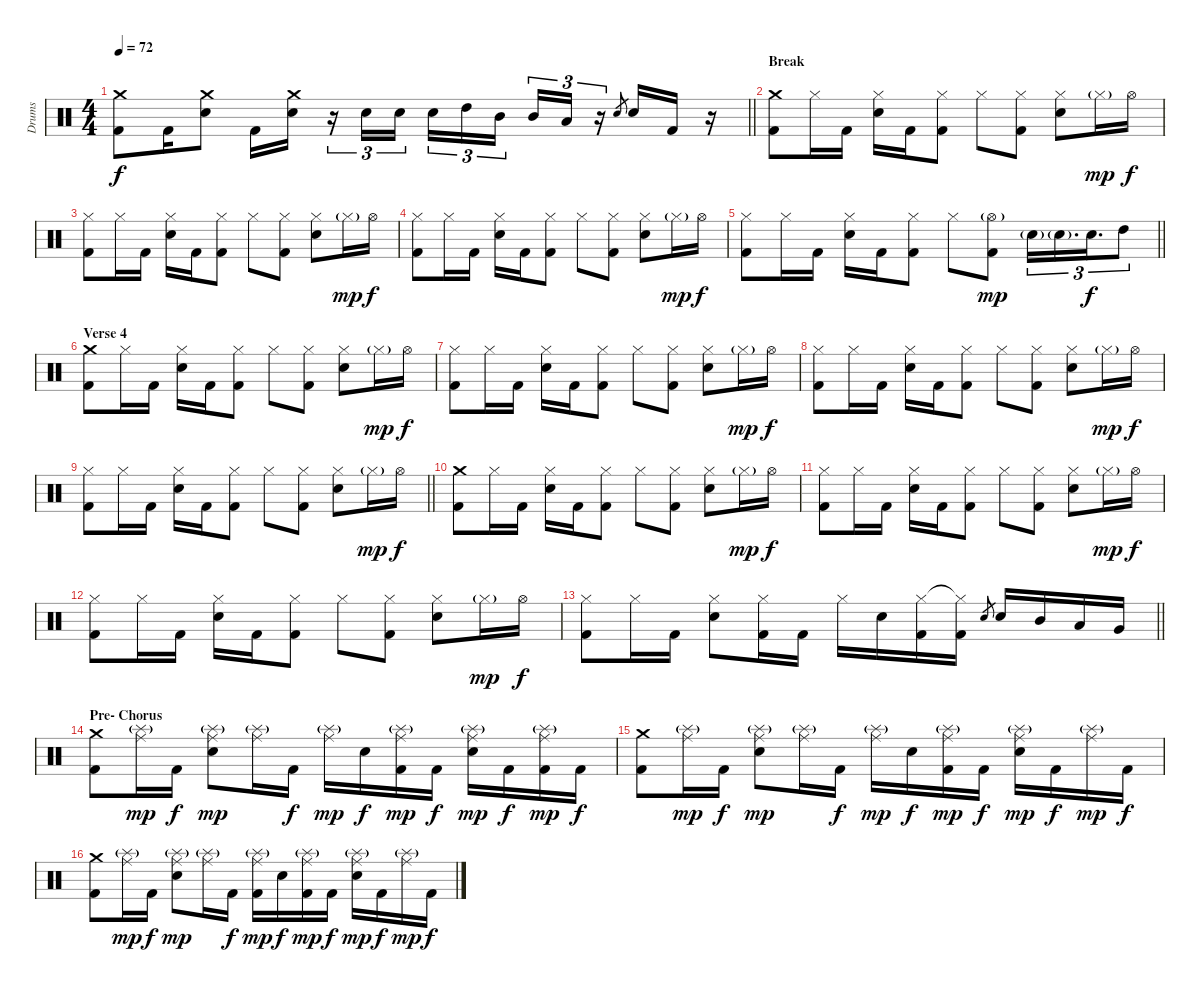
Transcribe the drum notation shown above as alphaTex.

\track ("Drums" "Drums") {instrument percussion}
\staff {score}
\articulation defaults
\ts (4 4)
\tempo 72
\clef neutral
\barLineRight lightlight
\ks c
("Crash medium (hit)" "Kick (hit) 2").8{dy f} "Kick (hit) 2".16 ("Crash medium (hit)" "Electric Snare (hit)").8 "Kick (hit) 2".16 ("Crash medium (hit)" "Electric Snare (hit)").16 r.16{tu (3 2)} "Electric Snare (hit)".16{tu (3 2)} "Electric Snare (hit)".16{tu (3 2) beam splitsecondary} "Electric Snare (hit)".16{tu (3 2)} "High Tom (hit)".16{tu (3 2)} "Mid Tom (hit)".16{tu (3 2) beam splitsecondary} "Mid Tom (hit)".16{tu (3 2)} "Low Tom (hit)".16{tu (3 2)} r.16{tu (3 2)} "Electric Snare (hit)"{h}.8{gr} "Electric Snare (hit)".16 "Kick (hit) 2".16 r.16 |
\section ("" "Break")
("Crash medium (hit)" "Kick (hit) 2").8 "Hi-Hat (closed)".16 "Kick (hit) 2".16 ("Hi-Hat (closed)" "Electric Snare (hit)").16 "Kick (hit) 2".16 ("Hi-Hat (closed)" "Kick (hit) 2").8 "Hi-Hat (closed)".8 ("Hi-Hat (closed)" "Kick (hit) 2").8 ("Hi-Hat (closed)" "Electric Snare (hit)").8 "Hi-Hat (closed)"{g}.16{dy mp} "Hi-Hat (open)".16{dy f} |
("Hi-Hat (closed)" "Kick (hit) 2").8 "Hi-Hat (closed)".16 "Kick (hit) 2".16 ("Hi-Hat (closed)" "Electric Snare (hit)").16 "Kick (hit) 2".16 ("Hi-Hat (closed)" "Kick (hit) 2").8 "Hi-Hat (closed)".8 ("Hi-Hat (closed)" "Kick (hit) 2").8 ("Hi-Hat (closed)" "Electric Snare (hit)").8 "Hi-Hat (closed)"{g}.16{dy mp} "Hi-Hat (open)".16{dy f} |
("Hi-Hat (closed)" "Kick (hit) 2").8 "Hi-Hat (closed)".16 "Kick (hit) 2".16 ("Hi-Hat (closed)" "Electric Snare (hit)").16 "Kick (hit) 2".16 ("Hi-Hat (closed)" "Kick (hit) 2").8 "Hi-Hat (closed)".8 ("Hi-Hat (closed)" "Kick (hit) 2").8 ("Hi-Hat (closed)" "Electric Snare (hit)").8 "Hi-Hat (closed)"{g}.16{dy mp} "Hi-Hat (open)".16{dy f} |
\barLineRight lightlight
("Hi-Hat (closed)" "Kick (hit) 2").8 "Hi-Hat (closed)".16 "Kick (hit) 2".16 ("Hi-Hat (closed)" "Electric Snare (hit)").16 "Kick (hit) 2".16 ("Hi-Hat (closed)" "Kick (hit) 2").8 "Hi-Hat (closed)".8 ("Hi-Hat (open)"{g} "Kick (hit) 2").8{dy mp} "Electric Snare (hit)"{g}.16{tu (3 2)} "Electric Snare (hit)"{g}.16{d tu (3 2)} "Electric Snare (hit)".16{d tu (3 2) dy f} "High Tom (hit)".8{tu (3 2)} |
\section ("" "Verse 4")
("Crash medium (hit)" "Kick (hit) 2").8 "Hi-Hat (closed)".16 "Kick (hit) 2".16 ("Hi-Hat (closed)" "Electric Snare (hit)").16 "Kick (hit) 2".16 ("Hi-Hat (closed)" "Kick (hit) 2").8 "Hi-Hat (closed)".8 ("Hi-Hat (closed)" "Kick (hit) 2").8 ("Hi-Hat (closed)" "Electric Snare (hit)").8 "Hi-Hat (closed)"{g}.16{dy mp} "Hi-Hat (open)".16{dy f} |
("Hi-Hat (closed)" "Kick (hit) 2").8 "Hi-Hat (closed)".16 "Kick (hit) 2".16 ("Hi-Hat (closed)" "Electric Snare (hit)").16 "Kick (hit) 2".16 ("Hi-Hat (closed)" "Kick (hit) 2").8 "Hi-Hat (closed)".8 ("Hi-Hat (closed)" "Kick (hit) 2").8 ("Hi-Hat (closed)" "Electric Snare (hit)").8 "Hi-Hat (closed)"{g}.16{dy mp} "Hi-Hat (open)".16{dy f} |
("Hi-Hat (closed)" "Kick (hit) 2").8 "Hi-Hat (closed)".16 "Kick (hit) 2".16 ("Hi-Hat (closed)" "Electric Snare (hit)").16 "Kick (hit) 2".16 ("Hi-Hat (closed)" "Kick (hit) 2").8 "Hi-Hat (closed)".8 ("Hi-Hat (closed)" "Kick (hit) 2").8 ("Hi-Hat (closed)" "Electric Snare (hit)").8 "Hi-Hat (closed)"{g}.16{dy mp} "Hi-Hat (open)".16{dy f} |
\barLineRight lightlight
("Hi-Hat (closed)" "Kick (hit) 2").8 "Hi-Hat (closed)".16 "Kick (hit) 2".16 ("Hi-Hat (closed)" "Electric Snare (hit)").16 "Kick (hit) 2".16 ("Hi-Hat (closed)" "Kick (hit) 2").8 "Hi-Hat (closed)".8 ("Hi-Hat (closed)" "Kick (hit) 2").8 ("Hi-Hat (closed)" "Electric Snare (hit)").8 "Hi-Hat (closed)"{g}.16{dy mp} "Hi-Hat (open)".16{dy f} |
("Crash medium (hit)" "Kick (hit) 2").8 "Hi-Hat (closed)".16 "Kick (hit) 2".16 ("Hi-Hat (closed)" "Electric Snare (hit)").16 "Kick (hit) 2".16 ("Hi-Hat (closed)" "Kick (hit) 2").8 "Hi-Hat (closed)".8 ("Hi-Hat (closed)" "Kick (hit) 2").8 ("Hi-Hat (closed)" "Electric Snare (hit)").8 "Hi-Hat (closed)"{g}.16{dy mp} "Hi-Hat (open)".16{dy f} |
("Hi-Hat (closed)" "Kick (hit) 2").8 "Hi-Hat (closed)".16 "Kick (hit) 2".16 ("Hi-Hat (closed)" "Electric Snare (hit)").16 "Kick (hit) 2".16 ("Hi-Hat (closed)" "Kick (hit) 2").8 "Hi-Hat (closed)".8 ("Hi-Hat (closed)" "Kick (hit) 2").8 ("Hi-Hat (closed)" "Electric Snare (hit)").8 "Hi-Hat (closed)"{g}.16{dy mp} "Hi-Hat (open)".16{dy f} |
("Hi-Hat (closed)" "Kick (hit) 2").8 "Hi-Hat (closed)".16 "Kick (hit) 2".16 ("Hi-Hat (closed)" "Electric Snare (hit)").16 "Kick (hit) 2".16 ("Hi-Hat (closed)" "Kick (hit) 2").8 "Hi-Hat (closed)".8 ("Hi-Hat (closed)" "Kick (hit) 2").8 ("Hi-Hat (closed)" "Electric Snare (hit)").8 "Hi-Hat (closed)"{g}.16{dy mp} "Hi-Hat (open)".16{dy f} |
\barLineRight lightlight
("Hi-Hat (closed)" "Kick (hit) 2").8 "Hi-Hat (closed)".16 "Kick (hit) 2".16 ("Hi-Hat (closed)" "Electric Snare (hit)").8 ("Hi-Hat (closed)" "Kick (hit) 2").16 "Kick (hit) 2".16 "Hi-Hat (closed)".16 "Electric Snare (hit)".16 ("Hi-Hat (closed)" "Kick (hit) 2").16 ("Hi-Hat (closed)"{t} "Kick (hit) 2").16 "Electric Snare (hit)"{h}.8{gr} "Electric Snare (hit)".16 "Mid Tom (hit)".16 "Low Tom (hit)".16 "Very Low Tom (hit)".16 |
\section ("" "Pre- Chorus")
("Crash medium (hit)" "Kick (hit) 2").8 ("Ride (middle)" "Splash (hit)"{g}).16{dy mp} "Kick (hit) 2".16{dy f} ("Ride (middle)" "Splash (hit)"{g} "Electric Snare (hit)").8{dy mp} ("Ride (middle)" "Splash (hit)"{g}).16 "Kick (hit) 2".16{dy f} ("Ride (middle)" "Splash (hit)"{g}).16{dy mp} "Electric Snare (hit)".16{dy f} ("Ride (middle)" "Splash (hit)"{g} "Kick (hit) 2").16{dy mp} "Kick (hit) 2".16{dy f} ("Ride (middle)" "Splash (hit)"{g} "Electric Snare (hit)").16{dy mp} "Kick (hit) 2".16{dy f} ("Ride (middle)" "Splash (hit)"{g} "Kick (hit) 2").16{dy mp} "Kick (hit) 2".16{dy f} |
("Crash medium (hit)" "Kick (hit) 2").8 ("Ride (middle)" "Splash (hit)"{g}).16{dy mp} "Kick (hit) 2".16{dy f} ("Ride (middle)" "Splash (hit)"{g} "Electric Snare (hit)").8{dy mp} ("Ride (middle)" "Splash (hit)"{g}).16 "Kick (hit) 2".16{dy f} ("Ride (middle)" "Splash (hit)"{g}).16{dy mp} "Electric Snare (hit)".16{dy f} ("Ride (middle)" "Splash (hit)"{g} "Kick (hit) 2").16{dy mp} "Kick (hit) 2".16{dy f} ("Ride (middle)" "Splash (hit)"{g} "Electric Snare (hit)").16{dy mp} "Kick (hit) 2".16{dy f} ("Ride (middle)" "Splash (hit)"{g}).16{dy mp} "Kick (hit) 2".16{dy f} |
("Crash medium (hit)" "Kick (hit) 2").8 ("Ride (middle)" "Splash (hit)"{g}).16{dy mp} "Kick (hit) 2".16{dy f} ("Ride (middle)" "Splash (hit)"{g} "Electric Snare (hit)").8{dy mp} ("Ride (middle)" "Splash (hit)"{g}).16 "Kick (hit) 2".16{dy f} ("Ride (middle)" "Splash (hit)"{g} "Kick (hit) 2").16{dy mp} "Electric Snare (hit)".16{dy f} ("Ride (middle)" "Splash (hit)"{g} "Kick (hit) 2").16{dy mp} "Kick (hit) 2".16{dy f} ("Ride (middle)" "Splash (hit)"{g} "Electric Snare (hit)").16{dy mp} "Kick (hit) 2".16{dy f} ("Ride (middle)" "Splash (hit)"{g}).16{dy mp} "Kick (hit) 2".16{dy f}
